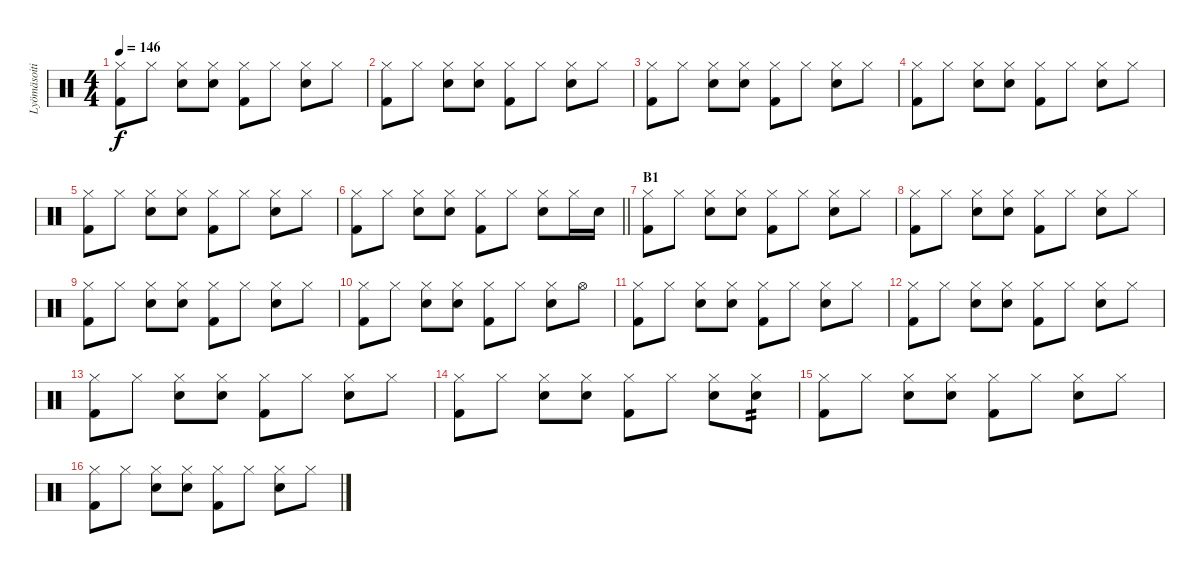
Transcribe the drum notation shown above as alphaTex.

\track ("Lyömäsoitin" "Lyömäsoiti") {instrument percussion}
\staff {score}
\articulation defaults
\ts (4 4)
\tempo 146
\clef neutral
\ks c
("Hi-Hat (closed)" "Kick (hit) 2").8{dy f} "Hi-Hat (closed)".8 ("Hi-Hat (closed)" "Electric Snare (hit)").8 ("Hi-Hat (closed)" "Electric Snare (hit)").8 ("Hi-Hat (closed)" "Kick (hit) 2").8 "Hi-Hat (closed)".8 ("Hi-Hat (closed)" "Electric Snare (hit)").8 "Hi-Hat (closed)".8 |
("Hi-Hat (closed)" "Kick (hit) 2").8 "Hi-Hat (closed)".8 ("Hi-Hat (closed)" "Electric Snare (hit)").8 ("Hi-Hat (closed)" "Electric Snare (hit)").8 ("Hi-Hat (closed)" "Kick (hit) 2").8 "Hi-Hat (closed)".8 ("Hi-Hat (closed)" "Electric Snare (hit)").8 "Hi-Hat (closed)".8 |
("Hi-Hat (closed)" "Kick (hit) 2").8 "Hi-Hat (closed)".8 ("Hi-Hat (closed)" "Electric Snare (hit)").8 ("Hi-Hat (closed)" "Electric Snare (hit)").8 ("Hi-Hat (closed)" "Kick (hit) 2").8 "Hi-Hat (closed)".8 ("Hi-Hat (closed)" "Electric Snare (hit)").8 "Hi-Hat (closed)".8 |
("Hi-Hat (closed)" "Kick (hit) 2").8 "Hi-Hat (closed)".8 ("Hi-Hat (closed)" "Electric Snare (hit)").8 ("Hi-Hat (closed)" "Electric Snare (hit)").8 ("Hi-Hat (closed)" "Kick (hit) 2").8 "Hi-Hat (closed)".8 ("Hi-Hat (closed)" "Electric Snare (hit)").8 "Hi-Hat (closed)".8 |
("Hi-Hat (closed)" "Kick (hit) 2").8 "Hi-Hat (closed)".8 ("Hi-Hat (closed)" "Electric Snare (hit)").8 ("Hi-Hat (closed)" "Electric Snare (hit)").8 ("Hi-Hat (closed)" "Kick (hit) 2").8 "Hi-Hat (closed)".8 ("Hi-Hat (closed)" "Electric Snare (hit)").8 "Hi-Hat (closed)".8 |
\barLineRight lightlight
("Hi-Hat (closed)" "Kick (hit) 2").8 "Hi-Hat (closed)".8 ("Hi-Hat (closed)" "Electric Snare (hit)").8 ("Hi-Hat (closed)" "Electric Snare (hit)").8 ("Hi-Hat (closed)" "Kick (hit) 2").8 "Hi-Hat (closed)".8 ("Hi-Hat (closed)" "Electric Snare (hit)").8 "Hi-Hat (closed)".16 "Electric Snare (hit)".16 |
\section ("" "B1")
("Hi-Hat (closed)" "Kick (hit) 2").8 "Hi-Hat (closed)".8 ("Hi-Hat (closed)" "Electric Snare (hit)").8 ("Hi-Hat (closed)" "Electric Snare (hit)").8 ("Hi-Hat (closed)" "Kick (hit) 2").8 "Hi-Hat (closed)".8 ("Hi-Hat (closed)" "Electric Snare (hit)").8 "Hi-Hat (closed)".8 |
("Hi-Hat (closed)" "Kick (hit) 2").8 "Hi-Hat (closed)".8 ("Hi-Hat (closed)" "Electric Snare (hit)").8 ("Hi-Hat (closed)" "Electric Snare (hit)").8 ("Hi-Hat (closed)" "Kick (hit) 2").8 "Hi-Hat (closed)".8 ("Hi-Hat (closed)" "Electric Snare (hit)").8 "Hi-Hat (closed)".8 |
("Hi-Hat (closed)" "Kick (hit) 2").8 "Hi-Hat (closed)".8 ("Hi-Hat (closed)" "Electric Snare (hit)").8 ("Hi-Hat (closed)" "Electric Snare (hit)").8 ("Hi-Hat (closed)" "Kick (hit) 2").8 "Hi-Hat (closed)".8 ("Hi-Hat (closed)" "Electric Snare (hit)").8 "Hi-Hat (closed)".8 |
("Hi-Hat (closed)" "Kick (hit) 2").8 "Hi-Hat (closed)".8 ("Hi-Hat (closed)" "Electric Snare (hit)").8 ("Hi-Hat (closed)" "Electric Snare (hit)").8 ("Hi-Hat (closed)" "Kick (hit) 2").8 "Hi-Hat (closed)".8 ("Hi-Hat (closed)" "Electric Snare (hit)").8 "Hi-Hat (open)".8 |
("Hi-Hat (closed)" "Kick (hit) 2").8 "Hi-Hat (closed)".8 ("Hi-Hat (closed)" "Electric Snare (hit)").8 ("Hi-Hat (closed)" "Electric Snare (hit)").8 ("Hi-Hat (closed)" "Kick (hit) 2").8 "Hi-Hat (closed)".8 ("Hi-Hat (closed)" "Electric Snare (hit)").8 "Hi-Hat (closed)".8 |
("Hi-Hat (closed)" "Kick (hit) 2").8 "Hi-Hat (closed)".8 ("Hi-Hat (closed)" "Electric Snare (hit)").8 ("Hi-Hat (closed)" "Electric Snare (hit)").8 ("Hi-Hat (closed)" "Kick (hit) 2").8 "Hi-Hat (closed)".8 ("Hi-Hat (closed)" "Electric Snare (hit)").8 "Hi-Hat (closed)".8 |
("Hi-Hat (closed)" "Kick (hit) 2").8 "Hi-Hat (closed)".8 ("Hi-Hat (closed)" "Electric Snare (hit)").8 ("Hi-Hat (closed)" "Electric Snare (hit)").8 ("Hi-Hat (closed)" "Kick (hit) 2").8 "Hi-Hat (closed)".8 ("Hi-Hat (closed)" "Electric Snare (hit)").8 "Hi-Hat (closed)".8 |
("Hi-Hat (closed)" "Kick (hit) 2").8 "Hi-Hat (closed)".8 ("Hi-Hat (closed)" "Electric Snare (hit)").8 ("Hi-Hat (closed)" "Electric Snare (hit)").8 ("Hi-Hat (closed)" "Kick (hit) 2").8 "Hi-Hat (closed)".8 ("Hi-Hat (closed)" "Electric Snare (hit)").8 ("Hi-Hat (closed)" "Electric Snare (hit)").8{tp 2} |
("Hi-Hat (closed)" "Kick (hit) 2").8 "Hi-Hat (closed)".8 ("Hi-Hat (closed)" "Electric Snare (hit)").8 ("Hi-Hat (closed)" "Electric Snare (hit)").8 ("Hi-Hat (closed)" "Kick (hit) 2").8 "Hi-Hat (closed)".8 ("Hi-Hat (closed)" "Electric Snare (hit)").8 "Hi-Hat (closed)".8 |
("Hi-Hat (closed)" "Kick (hit) 2").8 "Hi-Hat (closed)".8 ("Hi-Hat (closed)" "Electric Snare (hit)").8 ("Hi-Hat (closed)" "Electric Snare (hit)").8 ("Hi-Hat (closed)" "Kick (hit) 2").8 "Hi-Hat (closed)".8 ("Hi-Hat (closed)" "Electric Snare (hit)").8 "Hi-Hat (closed)".8
